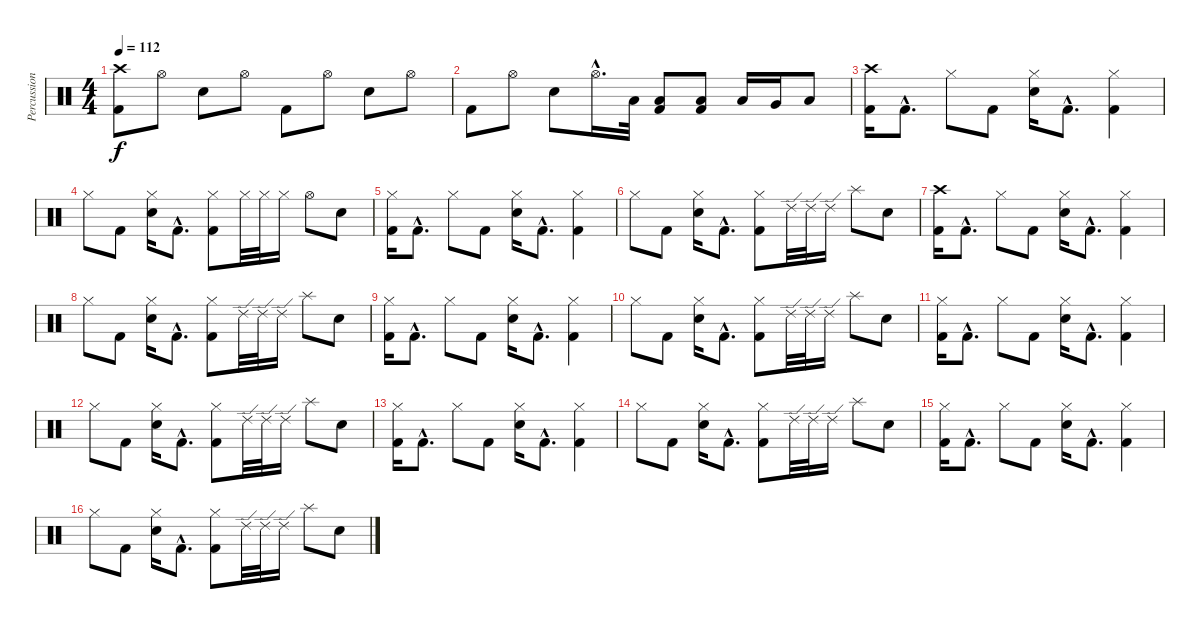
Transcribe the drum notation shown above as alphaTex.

\track ("Percussion" "Percussion") {instrument percussion}
\staff {score}
\articulation defaults
\ts (4 4)
\tempo 112
\clef neutral
\ks c
("Crash high (hit)" "Kick (hit) 2").8{dy f} "Hi-Hat (open)".8 "Snare (hit) 2".8 "Hi-Hat (open)".8 "Kick (hit) 2".8 "Hi-Hat (open)".8 "Snare (hit) 2".8 "Hi-Hat (open)".8 |
"Kick (hit) 2".8 "Hi-Hat (open)".8 "Snare (hit) 2".8 "Hi-Hat (open)"{hac}.16{d} "Low Tom (hit)".32 ("Low Tom (hit)" "Kick (hit) 2").8 ("Low Tom (hit)" "Kick (hit) 2").8 "Low Tom (hit)".16 "Very Low Tom (hit)".16 "Low Floor Tom (hit)".8 |
("Crash high (hit)" "Kick (hit) 2").16 "Kick (hit) 2"{hac}.8{d} "Hi-Hat (closed)".8 "Kick (hit) 2".8 ("Hi-Hat (closed)" "Snare (hit) 2").16 "Kick (hit) 2"{hac}.8{d} ("Hi-Hat (closed)" "Kick (hit) 2").4 |
"Hi-Hat (closed)".8 "Kick (hit) 2".8 ("Hi-Hat (closed)" "Snare (hit) 2").16 "Kick (hit) 2"{hac}.8{d} ("Hi-Hat (closed)" "Kick (hit) 2").8 "Hi-Hat (closed)".32 "Hi-Hat (closed)".32 "Hi-Hat (closed)".16 "Hi-Hat (open)".8 "Snare (hit) 2".8 |
("Hi-Hat (closed)" "Kick (hit) 2").16 "Kick (hit) 2"{hac}.8{d} "Hi-Hat (closed)".8 "Kick (hit) 2".8 ("Hi-Hat (closed)" "Snare (hit) 2").16 "Kick (hit) 2"{hac}.8{d} ("Hi-Hat (closed)" "Kick (hit) 2").4 |
"Hi-Hat (closed)".8 "Kick (hit) 2".8 ("Hi-Hat (closed)" "Snare (hit) 2").16 "Kick (hit) 2"{hac}.8{d} ("Hi-Hat (closed)" "Kick (hit) 2").8 "Ride (edge) 2".32 "Ride (edge) 2".32 "Ride (edge) 2".16 "Splash (hit)".8 "Snare (hit) 2".8 |
("Crash high (hit)" "Kick (hit) 2").16 "Kick (hit) 2"{hac}.8{d} "Hi-Hat (closed)".8 "Kick (hit) 2".8 ("Hi-Hat (closed)" "Snare (hit) 2").16 "Kick (hit) 2"{hac}.8{d} ("Hi-Hat (closed)" "Kick (hit) 2").4 |
"Hi-Hat (closed)".8 "Kick (hit) 2".8 ("Hi-Hat (closed)" "Electric Snare (hit)").16 "Kick (hit) 2"{hac}.8{d} ("Hi-Hat (closed)" "Kick (hit) 2").8 "Ride (edge) 2".32 "Ride (edge) 2".32 "Ride (edge) 2".16 "Splash (hit)".8 "Snare (hit) 2".8 |
("Hi-Hat (closed)" "Kick (hit) 2").16 "Kick (hit) 2"{hac}.8{d} "Hi-Hat (closed)".8 "Kick (hit) 2".8 ("Hi-Hat (closed)" "Snare (hit) 2").16 "Kick (hit) 2"{hac}.8{d} ("Hi-Hat (closed)" "Kick (hit) 2").4 |
"Hi-Hat (closed)".8 "Kick (hit) 2".8 ("Hi-Hat (closed)" "Snare (hit) 2").16 "Kick (hit) 2"{hac}.8{d} ("Hi-Hat (closed)" "Kick (hit) 2").8 "Ride (edge) 2".32 "Ride (edge) 2".32 "Ride (edge) 2".16 "Splash (hit)".8 "Snare (hit) 2".8 |
("Hi-Hat (closed)" "Kick (hit) 2").16 "Kick (hit) 2"{hac}.8{d} "Hi-Hat (closed)".8 "Kick (hit) 2".8 ("Hi-Hat (closed)" "Snare (hit) 2").16 "Kick (hit) 2"{hac}.8{d} ("Hi-Hat (closed)" "Kick (hit) 2").4 |
"Hi-Hat (closed)".8 "Kick (hit) 2".8 ("Hi-Hat (closed)" "Snare (hit) 2").16 "Kick (hit) 2"{hac}.8{d} ("Hi-Hat (closed)" "Kick (hit) 2").8 "Ride (edge) 2".32 "Ride (edge) 2".32 "Ride (edge) 2".16 "Splash (hit)".8 "Snare (hit) 2".8 |
("Hi-Hat (closed)" "Kick (hit) 2").16 "Kick (hit) 2"{hac}.8{d} "Hi-Hat (closed)".8 "Kick (hit) 2".8 ("Hi-Hat (closed)" "Snare (hit) 2").16 "Kick (hit) 2"{hac}.8{d} ("Hi-Hat (closed)" "Kick (hit) 2").4 |
"Hi-Hat (closed)".8 "Kick (hit) 2".8 ("Hi-Hat (closed)" "Snare (hit) 2").16 "Kick (hit) 2"{hac}.8{d} ("Hi-Hat (closed)" "Kick (hit) 2").8 "Ride (edge) 2".32 "Ride (edge) 2".32 "Ride (edge) 2".16 "Splash (hit)".8 "Snare (hit) 2".8 |
("Hi-Hat (closed)" "Kick (hit) 2").16 "Kick (hit) 2"{hac}.8{d} "Hi-Hat (closed)".8 "Kick (hit) 2".8 ("Hi-Hat (closed)" "Snare (hit) 2").16 "Kick (hit) 2"{hac}.8{d} ("Hi-Hat (closed)" "Kick (hit) 2").4 |
"Hi-Hat (closed)".8 "Kick (hit) 2".8 ("Hi-Hat (closed)" "Snare (hit) 2").16 "Kick (hit) 2"{hac}.8{d} ("Hi-Hat (closed)" "Kick (hit) 2").8 "Ride (edge) 2".32 "Ride (edge) 2".32 "Ride (edge) 2".16 "Splash (hit)".8 "Snare (hit) 2".8
